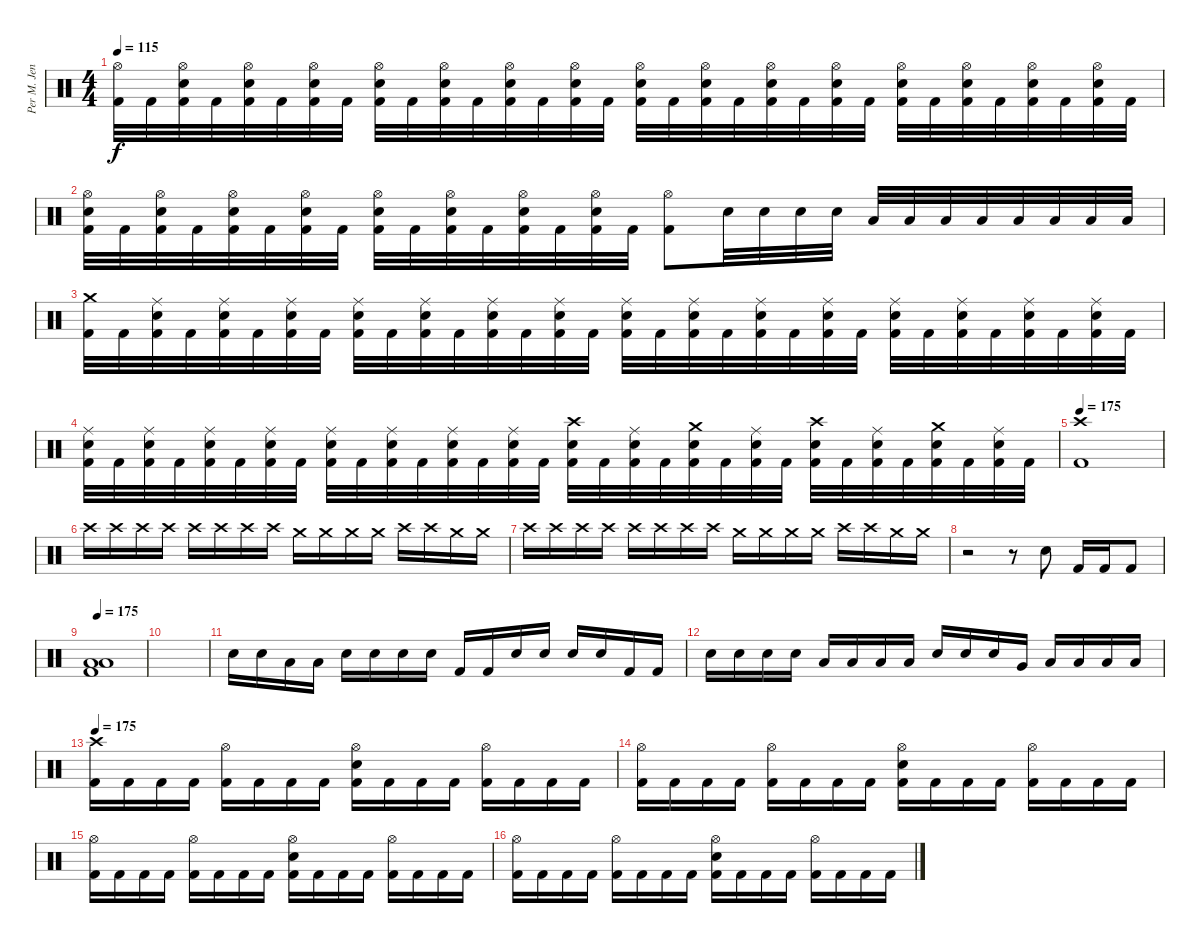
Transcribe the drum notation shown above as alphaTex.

\track ("Per M. Jensen (Ex-Drums)" "Per M. Jen") {instrument percussion}
\staff {score}
\articulation defaults
\ts (4 4)
\tempo 115
\clef neutral
\ks c
("Hi-Hat (open)" "Kick (hit) 2").32{dy f} "Kick (hit) 2".32 ("Hi-Hat (open)" "Snare (hit) 2" "Kick (hit) 2").32 "Kick (hit) 2".32 ("Hi-Hat (open)" "Snare (hit) 2" "Kick (hit) 2").32 "Kick (hit) 2".32 ("Hi-Hat (open)" "Snare (hit) 2" "Kick (hit) 2").32 "Kick (hit) 2".32 ("Hi-Hat (open)" "Snare (hit) 2" "Kick (hit) 2").32 "Kick (hit) 2".32 ("Hi-Hat (open)" "Snare (hit) 2" "Kick (hit) 2").32 "Kick (hit) 2".32 ("Hi-Hat (open)" "Snare (hit) 2" "Kick (hit) 2").32 "Kick (hit) 2".32 ("Hi-Hat (open)" "Snare (hit) 2" "Kick (hit) 2").32 "Kick (hit) 2".32 ("Hi-Hat (open)" "Snare (hit) 2" "Kick (hit) 2").32 "Kick (hit) 2".32 ("Hi-Hat (open)" "Snare (hit) 2" "Kick (hit) 2").32 "Kick (hit) 2".32 ("Hi-Hat (open)" "Snare (hit) 2" "Kick (hit) 2").32 "Kick (hit) 2".32 ("Hi-Hat (open)" "Snare (hit) 2" "Kick (hit) 2").32 "Kick (hit) 2".32 ("Hi-Hat (open)" "Snare (hit) 2" "Kick (hit) 2").32 "Kick (hit) 2".32 ("Hi-Hat (open)" "Snare (hit) 2" "Kick (hit) 2").32 "Kick (hit) 2".32 ("Hi-Hat (open)" "Snare (hit) 2" "Kick (hit) 2").32 "Kick (hit) 2".32 ("Hi-Hat (open)" "Snare (hit) 2" "Kick (hit) 2").32 "Kick (hit) 2".32 |
("Hi-Hat (open)" "Snare (hit) 2" "Kick (hit) 2").32 "Kick (hit) 2".32 ("Hi-Hat (open)" "Snare (hit) 2" "Kick (hit) 2").32 "Kick (hit) 2".32 ("Hi-Hat (open)" "Snare (hit) 2" "Kick (hit) 2").32 "Kick (hit) 2".32 ("Hi-Hat (open)" "Snare (hit) 2" "Kick (hit) 2").32 "Kick (hit) 2".32 ("Hi-Hat (open)" "Snare (hit) 2" "Kick (hit) 2").32 "Kick (hit) 2".32 ("Hi-Hat (open)" "Snare (hit) 2" "Kick (hit) 2").32 "Kick (hit) 2".32 ("Hi-Hat (open)" "Snare (hit) 2" "Kick (hit) 2").32 "Kick (hit) 2".32 ("Hi-Hat (open)" "Snare (hit) 2" "Kick (hit) 2").32 "Kick (hit) 2".32 ("Hi-Hat (open)" "Kick (hit) 2").8 "Snare (hit) 2".32 "Snare (hit) 2".32 "Snare (hit) 2".32 "Snare (hit) 2".32 "Low Tom (hit)".32 "Low Tom (hit)".32 "Low Tom (hit)".32 "Low Tom (hit)".32 "Low Floor Tom (hit)".32 "Low Floor Tom (hit)".32 "Low Floor Tom (hit)".32 "Low Floor Tom (hit)".32 |
("Crash medium (hit)" "Kick (hit) 2").32 "Kick (hit) 2".32 ("Ride (middle)" "Snare (hit) 2" "Kick (hit) 2").32 "Kick (hit) 2".32 ("Ride (middle)" "Snare (hit) 2" "Kick (hit) 2").32 "Kick (hit) 2".32 ("Ride (middle)" "Snare (hit) 2" "Kick (hit) 2").32 "Kick (hit) 2".32 ("Ride (middle)" "Snare (hit) 2" "Kick (hit) 2").32 "Kick (hit) 2".32 ("Ride (middle)" "Snare (hit) 2" "Kick (hit) 2").32 "Kick (hit) 2".32 ("Ride (middle)" "Snare (hit) 2" "Kick (hit) 2").32 "Kick (hit) 2".32 ("Ride (middle)" "Snare (hit) 2" "Kick (hit) 2").32 "Kick (hit) 2".32 ("Ride (middle)" "Snare (hit) 2" "Kick (hit) 2").32 "Kick (hit) 2".32 ("Ride (middle)" "Snare (hit) 2" "Kick (hit) 2").32 "Kick (hit) 2".32 ("Ride (middle)" "Snare (hit) 2" "Kick (hit) 2").32 "Kick (hit) 2".32 ("Ride (middle)" "Snare (hit) 2" "Kick (hit) 2").32 "Kick (hit) 2".32 ("Ride (middle)" "Snare (hit) 2" "Kick (hit) 2").32 "Kick (hit) 2".32 ("Ride (middle)" "Snare (hit) 2" "Kick (hit) 2").32 "Kick (hit) 2".32 ("Ride (middle)" "Snare (hit) 2" "Kick (hit) 2").32 "Kick (hit) 2".32 ("Ride (middle)" "Snare (hit) 2" "Kick (hit) 2").32 "Kick (hit) 2".32 |
("Ride (middle)" "Snare (hit) 2" "Kick (hit) 2").32 "Kick (hit) 2".32 ("Ride (middle)" "Snare (hit) 2" "Kick (hit) 2").32 "Kick (hit) 2".32 ("Ride (middle)" "Snare (hit) 2" "Kick (hit) 2").32 "Kick (hit) 2".32 ("Ride (middle)" "Snare (hit) 2" "Kick (hit) 2").32 "Kick (hit) 2".32 ("Ride (middle)" "Snare (hit) 2" "Kick (hit) 2").32 "Kick (hit) 2".32 ("Ride (middle)" "Snare (hit) 2" "Kick (hit) 2").32 "Kick (hit) 2".32 ("Ride (middle)" "Snare (hit) 2" "Kick (hit) 2").32 "Kick (hit) 2".32 ("Ride (middle)" "Snare (hit) 2" "Kick (hit) 2").32 "Kick (hit) 2".32 ("Crash high (hit)" "Snare (hit) 2" "Kick (hit) 2").32 "Kick (hit) 2".32 ("Ride (middle)" "Snare (hit) 2" "Kick (hit) 2").32 "Kick (hit) 2".32 ("Crash medium (hit)" "Snare (hit) 2" "Kick (hit) 2").32 "Kick (hit) 2".32 ("Ride (middle)" "Snare (hit) 2" "Kick (hit) 2").32 "Kick (hit) 2".32 ("Crash high (hit)" "Snare (hit) 2" "Kick (hit) 2").32 "Kick (hit) 2".32 ("Ride (middle)" "Snare (hit) 2" "Kick (hit) 2").32 "Kick (hit) 2".32 ("Crash medium (hit)" "Snare (hit) 2" "Kick (hit) 2").32 "Kick (hit) 2".32 ("Ride (middle)" "Snare (hit) 2" "Kick (hit) 2").32 "Kick (hit) 2".32 |
\tempo 175
("Crash high (hit)" "Kick (hit) 2").1 |
"Crash high (hit)".16 "Crash high (hit)".16 "Crash high (hit)".16 "Crash high (hit)".16 "Crash high (hit)".16 "Crash high (hit)".16 "Crash high (hit)".16 "Crash high (hit)".16 "Crash medium (hit)".16 "Crash medium (hit)".16 "Crash medium (hit)".16 "Crash medium (hit)".16 "Crash high (hit)".16 "Crash high (hit)".16 "Crash medium (hit)".16 "Crash medium (hit)".16 |
"Crash high (hit)".16 "Crash high (hit)".16 "Crash high (hit)".16 "Crash high (hit)".16 "Crash high (hit)".16 "Crash high (hit)".16 "Crash high (hit)".16 "Crash high (hit)".16 "Crash medium (hit)".16 "Crash medium (hit)".16 "Crash medium (hit)".16 "Crash medium (hit)".16 "Crash high (hit)".16 "Crash high (hit)".16 "Crash medium (hit)".16 "Crash medium (hit)".16 |
r.2 r.8 "Snare (hit) 2".8 "Kick (hit) 2".16 "Kick (hit) 2".16 "Kick (hit) 2".8 |
\tempo 175
("Kick (hit) 2" "Low Floor Tom (hit)" "Low Tom (hit)").1 |
|
"Snare (hit) 2".16 "Snare (hit) 2".16 "Low Tom (hit)".16 "Low Tom (hit)".16 "Snare (hit) 2".16 "Snare (hit) 2".16 "Snare (hit) 2".16 "Snare (hit) 2".16 "Kick (hit) 2".16 "Kick (hit) 2".16 "Snare (hit) 2".16 "Snare (hit) 2".16 "Snare (hit) 2".16 "Snare (hit) 2".16 "Kick (hit) 2".16 "Kick (hit) 2".16 |
"Snare (hit) 2".16 "Snare (hit) 2".16 "Snare (hit) 2".16 "Snare (hit) 2".16 "Low Tom (hit)".16 "Low Tom (hit)".16 "Low Tom (hit)".16 "Low Tom (hit)".16 "Snare (hit) 2".16 "Snare (hit) 2".16 "Snare (hit) 2".16 "Very Low Tom (hit)".16 "Low Floor Tom (hit)".16 "Low Floor Tom (hit)".16 "Low Floor Tom (hit)".16 "Low Floor Tom (hit)".16 |
\tempo 175
("Crash high (hit)" "Kick (hit) 2").16 "Kick (hit) 2".16 "Kick (hit) 2".16 "Kick (hit) 2".16 ("Hi-Hat (open)" "Kick (hit) 2").16 "Kick (hit) 2".16 "Kick (hit) 2".16 "Kick (hit) 2".16 ("Hi-Hat (open)" "Snare (hit) 2" "Kick (hit) 2").16 "Kick (hit) 2".16 "Kick (hit) 2".16 "Kick (hit) 2".16 ("Hi-Hat (open)" "Kick (hit) 2").16 "Kick (hit) 2".16 "Kick (hit) 2".16 "Kick (hit) 2".16 |
("Hi-Hat (open)" "Kick (hit) 2").16 "Kick (hit) 2".16 "Kick (hit) 2".16 "Kick (hit) 2".16 ("Hi-Hat (open)" "Kick (hit) 2").16 "Kick (hit) 2".16 "Kick (hit) 2".16 "Kick (hit) 2".16 ("Hi-Hat (open)" "Snare (hit) 2" "Kick (hit) 2").16 "Kick (hit) 2".16 "Kick (hit) 2".16 "Kick (hit) 2".16 ("Hi-Hat (open)" "Kick (hit) 2").16 "Kick (hit) 2".16 "Kick (hit) 2".16 "Kick (hit) 2".16 |
("Hi-Hat (open)" "Kick (hit) 2").16 "Kick (hit) 2".16 "Kick (hit) 2".16 "Kick (hit) 2".16 ("Hi-Hat (open)" "Kick (hit) 2").16 "Kick (hit) 2".16 "Kick (hit) 2".16 "Kick (hit) 2".16 ("Hi-Hat (open)" "Snare (hit) 2" "Kick (hit) 2").16 "Kick (hit) 2".16 "Kick (hit) 2".16 "Kick (hit) 2".16 ("Hi-Hat (open)" "Kick (hit) 2").16 "Kick (hit) 2".16 "Kick (hit) 2".16 "Kick (hit) 2".16 |
("Hi-Hat (open)" "Kick (hit) 2").16 "Kick (hit) 2".16 "Kick (hit) 2".16 "Kick (hit) 2".16 ("Hi-Hat (open)" "Kick (hit) 2").16 "Kick (hit) 2".16 "Kick (hit) 2".16 "Kick (hit) 2".16 ("Hi-Hat (open)" "Snare (hit) 2" "Kick (hit) 2").16 "Kick (hit) 2".16 "Kick (hit) 2".16 "Kick (hit) 2".16 ("Hi-Hat (open)" "Kick (hit) 2").16 "Kick (hit) 2".16 "Kick (hit) 2".16 "Kick (hit) 2".16
